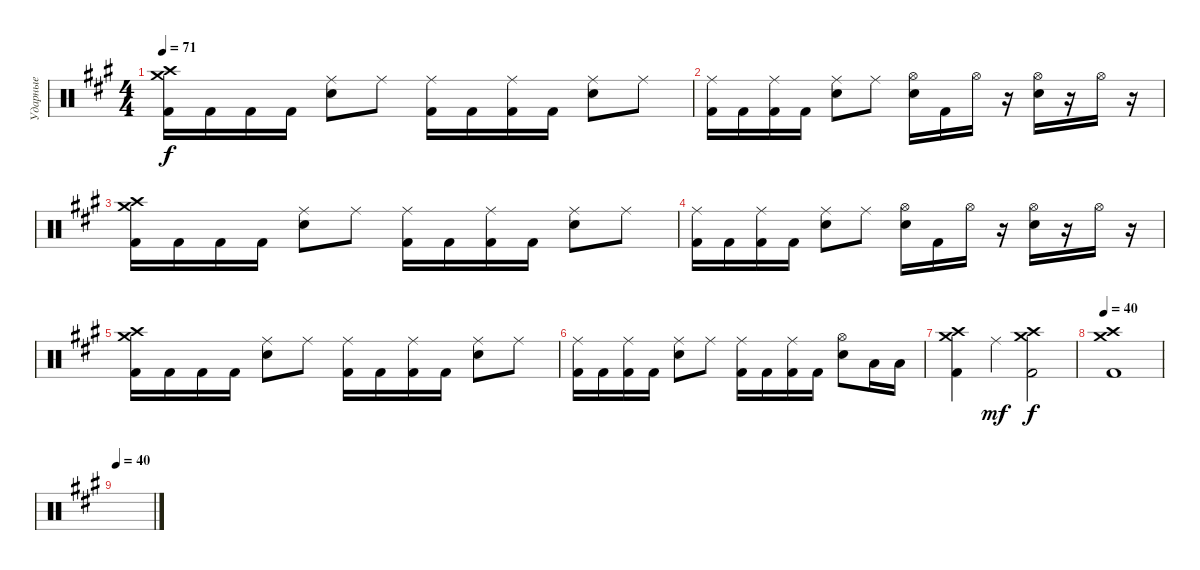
\track ("Ударные" "Ударные") {instrument percussion}
\staff {score}
\articulation defaults
\ts (4 4)
\tempo 71
\clef neutral
\ks f#minor
("Crash high (hit)" "Kick (hit) 2" "Crash medium (hit)").16{dy f} "Kick (hit) 2".16 "Kick (hit) 2".16 "Kick (hit) 2".16 ("Ride (middle)" "Electric Snare (hit)").8 "Ride (middle)".8 ("Ride (middle)" "Kick (hit) 2").16 "Kick (hit) 2".16 ("Ride (middle)" "Kick (hit) 2").16 "Kick (hit) 2".16 ("Ride (middle)" "Electric Snare (hit)").8 "Ride (middle)".8 |
("Ride (middle)" "Kick (hit) 2").16 "Kick (hit) 2".16 ("Ride (middle)" "Kick (hit) 2").16 "Kick (hit) 2".16 ("Ride (middle)" "Electric Snare (hit)").8 "Ride (middle)".8 ("Hi-Hat (open)" "Electric Snare (hit)").16 "Kick (hit) 2".16 "Hi-Hat (open)".16 r.16 ("Hi-Hat (open)" "Electric Snare (hit)").16 r.16 "Hi-Hat (open)".16 r.16 |
("Crash high (hit)" "Kick (hit) 2" "Crash medium (hit)").16 "Kick (hit) 2".16 "Kick (hit) 2".16 "Kick (hit) 2".16 ("Ride (middle)" "Electric Snare (hit)").8 "Ride (middle)".8 ("Ride (middle)" "Kick (hit) 2").16 "Kick (hit) 2".16 ("Ride (middle)" "Kick (hit) 2").16 "Kick (hit) 2".16 ("Ride (middle)" "Electric Snare (hit)").8 "Ride (middle)".8 |
("Ride (middle)" "Kick (hit) 2").16 "Kick (hit) 2".16 ("Ride (middle)" "Kick (hit) 2").16 "Kick (hit) 2".16 ("Ride (middle)" "Electric Snare (hit)").8 "Ride (middle)".8 ("Hi-Hat (open)" "Electric Snare (hit)").16 "Kick (hit) 2".16 "Hi-Hat (open)".16 r.16 ("Hi-Hat (open)" "Electric Snare (hit)").16 r.16 "Hi-Hat (open)".16 r.16 |
("Crash high (hit)" "Kick (hit) 2" "Crash medium (hit)").16 "Kick (hit) 2".16 "Kick (hit) 2".16 "Kick (hit) 2".16 ("Ride (middle)" "Electric Snare (hit)").8 "Ride (middle)".8 ("Ride (middle)" "Kick (hit) 2").16 "Kick (hit) 2".16 ("Ride (middle)" "Kick (hit) 2").16 "Kick (hit) 2".16 ("Ride (middle)" "Electric Snare (hit)").8 "Ride (middle)".8 |
("Ride (middle)" "Kick (hit) 2").16 "Kick (hit) 2".16 ("Ride (middle)" "Kick (hit) 2").16 "Kick (hit) 2".16 ("Ride (middle)" "Electric Snare (hit)").8 "Ride (middle)".8 ("Ride (middle)" "Kick (hit) 2").16 "Kick (hit) 2".16 ("Ride (middle)" "Kick (hit) 2").16 "Kick (hit) 2".16 ("Hi-Hat (open)" "Electric Snare (hit)").8 "Low Floor Tom (hit)".16 "Low Floor Tom (hit)".16 |
("Crash high (hit)" "Crash medium (hit)" "Kick (hit) 2").4 "Ride (middle)".4{dy mf} ("Crash high (hit)" "Kick (hit) 2" "Crash medium (hit)").2{dy f} |
\tempo 40
("Crash high (hit)" "Crash medium (hit)" "Kick (hit) 2").1 |
\tempo 40
